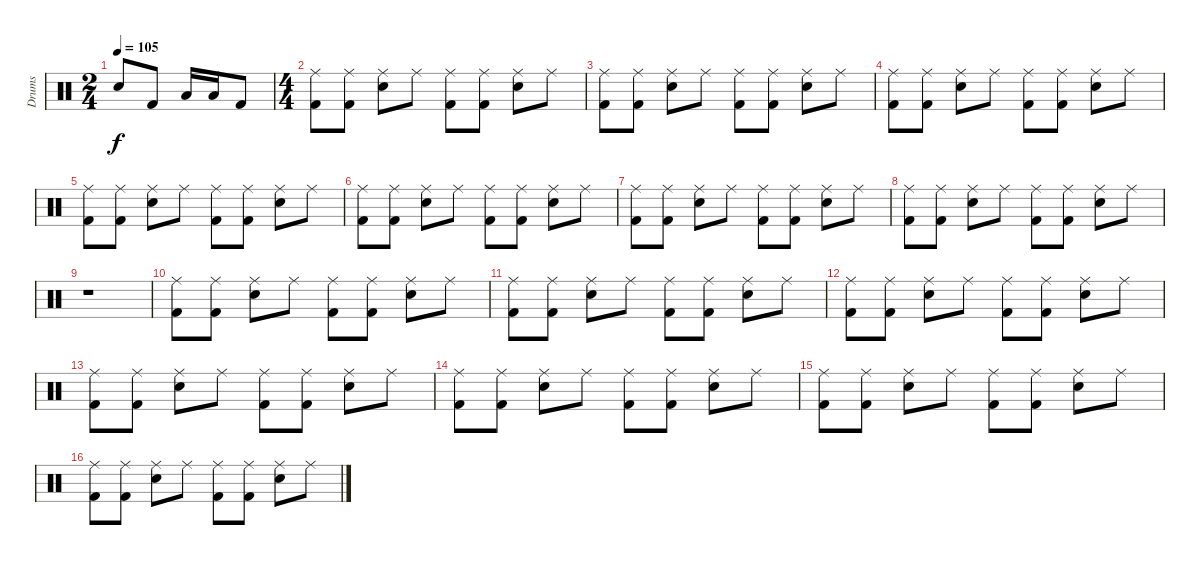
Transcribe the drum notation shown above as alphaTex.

\track ("Drums" "Drums") {instrument percussion}
\staff {score}
\articulation defaults
\ts (2 4)
\tempo 105
\clef neutral
\ks c "Snare (hit) 2".8{dy f} "Kick (hit) 2".8 "Low Tom (hit)".16 "Low Tom (hit)".16 "Kick (hit) 2".8
|
\ts (4 4)
("Ride (middle)" "Kick (hit) 2").8 ("Ride (middle)" "Kick (hit) 2").8 ("Ride (middle)" "Snare (hit) 2").8 "Ride (middle)".8 ("Ride (middle)" "Kick (hit) 2").8 ("Ride (middle)" "Kick (hit) 2").8 ("Ride (middle)" "Snare (hit) 2").8 "Ride (middle)".8 |
("Ride (middle)" "Kick (hit) 2").8 ("Ride (middle)" "Kick (hit) 2").8 ("Ride (middle)" "Snare (hit) 2").8 "Ride (middle)".8 ("Ride (middle)" "Kick (hit) 2").8 ("Ride (middle)" "Kick (hit) 2").8 ("Ride (middle)" "Snare (hit) 2").8 "Ride (middle)".8 |
("Ride (middle)" "Kick (hit) 2").8 ("Ride (middle)" "Kick (hit) 2").8 ("Ride (middle)" "Snare (hit) 2").8 "Ride (middle)".8 ("Ride (middle)" "Kick (hit) 2").8 ("Ride (middle)" "Kick (hit) 2").8 ("Ride (middle)" "Snare (hit) 2").8 "Ride (middle)".8 |
("Ride (middle)" "Kick (hit) 2").8 ("Ride (middle)" "Kick (hit) 2").8 ("Ride (middle)" "Snare (hit) 2").8 "Ride (middle)".8 ("Ride (middle)" "Kick (hit) 2").8 ("Ride (middle)" "Kick (hit) 2").8 ("Ride (middle)" "Snare (hit) 2").8 "Ride (middle)".8 |
("Ride (middle)" "Kick (hit) 2").8 ("Ride (middle)" "Kick (hit) 2").8 ("Ride (middle)" "Snare (hit) 2").8 "Ride (middle)".8 ("Ride (middle)" "Kick (hit) 2").8 ("Ride (middle)" "Kick (hit) 2").8 ("Ride (middle)" "Snare (hit) 2").8 "Ride (middle)".8 |
("Ride (middle)" "Kick (hit) 2").8 ("Ride (middle)" "Kick (hit) 2").8 ("Ride (middle)" "Snare (hit) 2").8 "Ride (middle)".8 ("Ride (middle)" "Kick (hit) 2").8 ("Ride (middle)" "Kick (hit) 2").8 ("Ride (middle)" "Snare (hit) 2").8 "Ride (middle)".8 |
("Ride (middle)" "Kick (hit) 2").8 ("Ride (middle)" "Kick (hit) 2").8 ("Ride (middle)" "Snare (hit) 2").8 "Ride (middle)".8 ("Ride (middle)" "Kick (hit) 2").8 ("Ride (middle)" "Kick (hit) 2").8 ("Ride (middle)" "Snare (hit) 2").8 "Ride (middle)".8 |
r.1 |
("Ride (middle)" "Kick (hit) 2").8 ("Ride (middle)" "Kick (hit) 2").8 ("Ride (middle)" "Snare (hit) 2").8 "Ride (middle)".8 ("Ride (middle)" "Kick (hit) 2").8 ("Ride (middle)" "Kick (hit) 2").8 ("Ride (middle)" "Snare (hit) 2").8 "Ride (middle)".8 |
("Ride (middle)" "Kick (hit) 2").8 ("Ride (middle)" "Kick (hit) 2").8 ("Ride (middle)" "Snare (hit) 2").8 "Ride (middle)".8 ("Ride (middle)" "Kick (hit) 2").8 ("Ride (middle)" "Kick (hit) 2").8 ("Ride (middle)" "Snare (hit) 2").8 "Ride (middle)".8 |
("Ride (middle)" "Kick (hit) 2").8 ("Ride (middle)" "Kick (hit) 2").8 ("Ride (middle)" "Snare (hit) 2").8 "Ride (middle)".8 ("Ride (middle)" "Kick (hit) 2").8 ("Ride (middle)" "Kick (hit) 2").8 ("Ride (middle)" "Snare (hit) 2").8 "Ride (middle)".8 |
("Ride (middle)" "Kick (hit) 2").8 ("Ride (middle)" "Kick (hit) 2").8 ("Ride (middle)" "Snare (hit) 2").8 "Ride (middle)".8 ("Ride (middle)" "Kick (hit) 2").8 ("Ride (middle)" "Kick (hit) 2").8 ("Ride (middle)" "Snare (hit) 2").8 "Ride (middle)".8 |
("Ride (middle)" "Kick (hit) 2").8 ("Ride (middle)" "Kick (hit) 2").8 ("Ride (middle)" "Snare (hit) 2").8 "Ride (middle)".8 ("Ride (middle)" "Kick (hit) 2").8 ("Ride (middle)" "Kick (hit) 2").8 ("Ride (middle)" "Snare (hit) 2").8 "Ride (middle)".8 |
("Ride (middle)" "Kick (hit) 2").8 ("Ride (middle)" "Kick (hit) 2").8 ("Ride (middle)" "Snare (hit) 2").8 "Ride (middle)".8 ("Ride (middle)" "Kick (hit) 2").8 ("Ride (middle)" "Kick (hit) 2").8 ("Ride (middle)" "Snare (hit) 2").8 "Ride (middle)".8 |
("Ride (middle)" "Kick (hit) 2").8 ("Ride (middle)" "Kick (hit) 2").8 ("Ride (middle)" "Snare (hit) 2").8 "Ride (middle)".8 ("Ride (middle)" "Kick (hit) 2").8 ("Ride (middle)" "Kick (hit) 2").8 ("Ride (middle)" "Snare (hit) 2").8 "Ride (middle)".8
